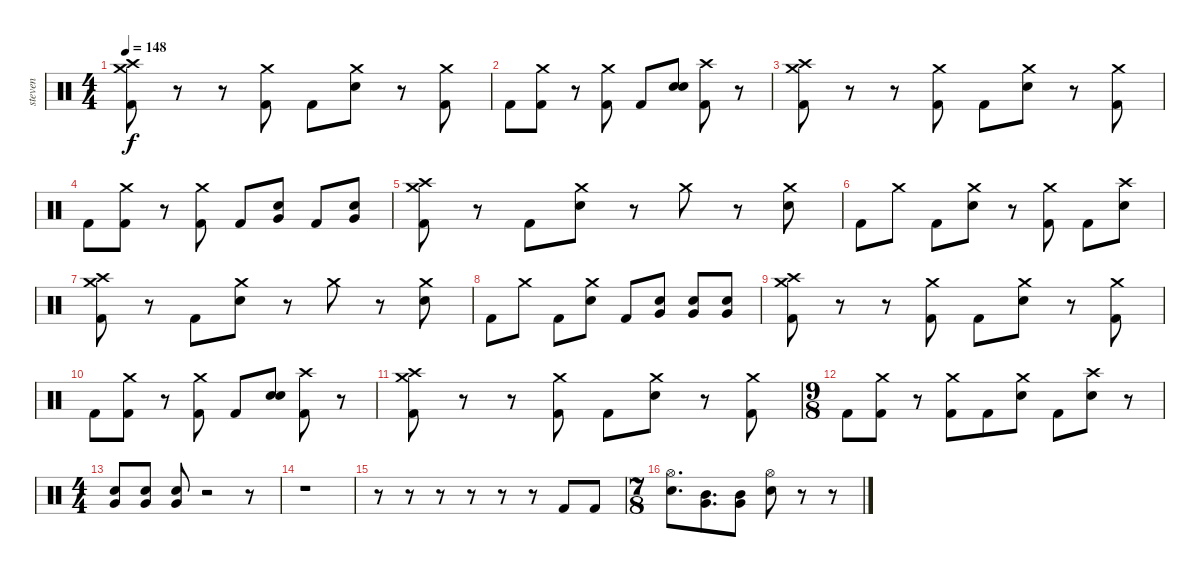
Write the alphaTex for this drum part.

\track ("steven" "steven") {instrument percussion}
\staff {score}
\articulation defaults
\ts (4 4)
\tempo 148
\clef neutral
\ks c
("Crash medium (hit)" "Crash high (hit)" "Kick (hit) 2").8{dy f} r.8 r.8 ("Crash medium (hit)" "Kick (hit) 2").8 "Kick (hit) 2".8 ("Crash medium (hit)" "Electric Snare (hit)").8 r.8 ("Crash medium (hit)" "Kick (hit) 2").8 |
"Kick (hit) 2".8 ("Crash medium (hit)" "Kick (hit) 2").8 r.8 ("Crash medium (hit)" "Kick (hit) 2").8 "Kick (hit) 2".8 ("Electric Snare (hit)" "Electric Snare (hit)").8 ("Crash high (hit)" "Kick (hit) 2").8 r.8 |
("Crash medium (hit)" "Crash high (hit)" "Kick (hit) 2").8 r.8 r.8 ("Crash medium (hit)" "Kick (hit) 2").8 "Kick (hit) 2".8 ("Crash medium (hit)" "Electric Snare (hit)").8 r.8 ("Crash medium (hit)" "Kick (hit) 2").8 |
"Kick (hit) 2".8 ("Crash medium (hit)" "Kick (hit) 2").8 r.8 ("Crash medium (hit)" "Kick (hit) 2").8 "Kick (hit) 2".8 ("Electric Snare (hit)" "Very Low Tom (hit)").8 "Kick (hit) 2".8 ("Electric Snare (hit)" "Very Low Tom (hit)").8 |
("Crash medium (hit)" "Crash high (hit)" "Kick (hit) 2").8 r.8 "Kick (hit) 2".8 ("Crash medium (hit)" "Electric Snare (hit)").8 r.8 "Crash medium (hit)".8 r.8 ("Crash medium (hit)" "Electric Snare (hit)").8 |
"Kick (hit) 2".8 "Crash medium (hit)".8 "Kick (hit) 2".8 ("Crash medium (hit)" "Electric Snare (hit)").8 r.8 ("Crash medium (hit)" "Kick (hit) 2").8 "Kick (hit) 2".8 ("Crash high (hit)" "Electric Snare (hit)").8 |
("Crash medium (hit)" "Crash high (hit)" "Kick (hit) 2").8 r.8 "Kick (hit) 2".8 ("Crash medium (hit)" "Electric Snare (hit)").8 r.8 "Crash medium (hit)".8 r.8 ("Crash medium (hit)" "Electric Snare (hit)").8 |
"Kick (hit) 2".8 "Crash medium (hit)".8 "Kick (hit) 2".8 ("Crash medium (hit)" "Electric Snare (hit)").8 "Kick (hit) 2".8 ("Very Low Tom (hit)" "Electric Snare (hit)").8 ("Very Low Tom (hit)" "Electric Snare (hit)").8 ("Very Low Tom (hit)" "Electric Snare (hit)").8 |
("Crash medium (hit)" "Crash high (hit)" "Kick (hit) 2").8 r.8 r.8 ("Crash medium (hit)" "Kick (hit) 2").8 "Kick (hit) 2".8 ("Crash medium (hit)" "Electric Snare (hit)").8 r.8 ("Crash medium (hit)" "Kick (hit) 2").8 |
"Kick (hit) 2".8 ("Crash medium (hit)" "Kick (hit) 2").8 r.8 ("Crash medium (hit)" "Kick (hit) 2").8 "Kick (hit) 2".8 ("Electric Snare (hit)" "Electric Snare (hit)").8 ("Crash high (hit)" "Kick (hit) 2").8 r.8 |
("Crash medium (hit)" "Crash high (hit)" "Kick (hit) 2").8 r.8 r.8 ("Crash medium (hit)" "Kick (hit) 2").8 "Kick (hit) 2".8 ("Crash medium (hit)" "Electric Snare (hit)").8 r.8 ("Crash medium (hit)" "Kick (hit) 2").8 |
\ts (9 8)
"Kick (hit) 2".8 ("Crash medium (hit)" "Kick (hit) 2").8 r.8 ("Crash medium (hit)" "Kick (hit) 2").8 "Kick (hit) 2".8 ("Crash medium (hit)" "Electric Snare (hit)").8 "Kick (hit) 2".8 ("Crash high (hit)" "Electric Snare (hit)").8 r.8 |
\ts (4 4)
("Electric Snare (hit)" "Very Low Tom (hit)").8 ("Electric Snare (hit)" "Very Low Tom (hit)").8 ("Electric Snare (hit)" "Very Low Tom (hit)").8 r.2 r.8 |
r.1 |
r.8 r.8 r.8 r.8 r.8 r.8 "Kick (hit) 2".8 "Kick (hit) 2".8 |
\ts (7 8)
("Hi-Hat (open)" "Electric Snare (hit)").8{d} ("Very Low Tom (hit)" "Mid Tom (hit)").8{d} ("Very Low Tom (hit)" "Mid Tom (hit)").8 ("Hi-Hat (open)" "Electric Snare (hit)").8 r.8 r.8
